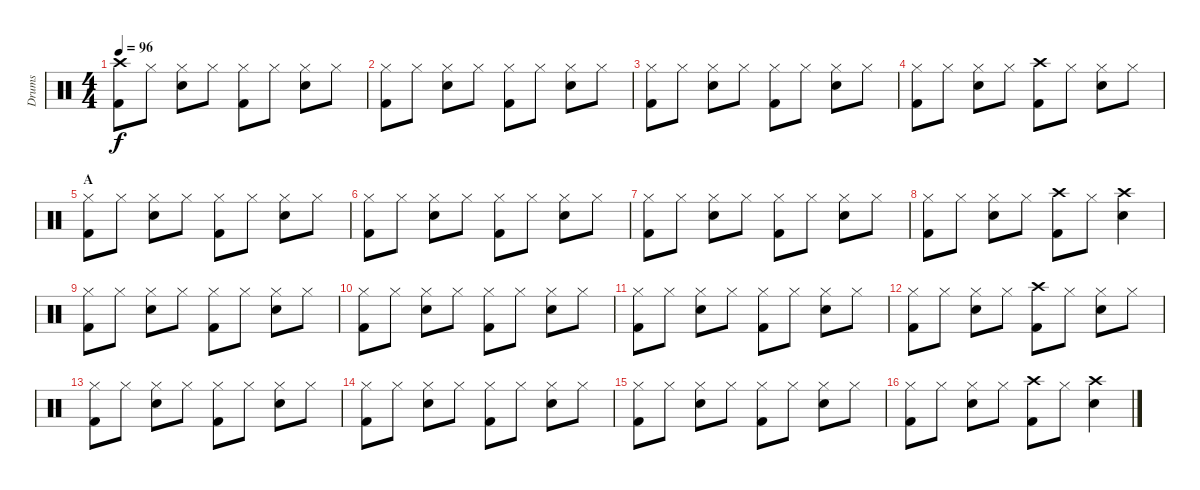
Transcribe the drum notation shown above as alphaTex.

\track ("Drums" "Drums") {instrument percussion}
\staff {score}
\articulation defaults
\ts (4 4)
\tempo 96
\clef neutral
\ks c
("Crash high (hit)" "Kick (hit) 2").8{dy f} "Hi-Hat (closed)".8 ("Hi-Hat (closed)" "Snare (hit) 2").8 "Hi-Hat (closed)".8 ("Hi-Hat (closed)" "Kick (hit) 2").8 "Hi-Hat (closed)".8 ("Hi-Hat (closed)" "Snare (hit) 2").8 "Hi-Hat (closed)".8 |
("Hi-Hat (closed)" "Kick (hit) 2").8 "Hi-Hat (closed)".8 ("Hi-Hat (closed)" "Snare (hit) 2").8 "Hi-Hat (closed)".8 ("Hi-Hat (closed)" "Kick (hit) 2").8 "Hi-Hat (closed)".8 ("Hi-Hat (closed)" "Snare (hit) 2").8 "Hi-Hat (closed)".8 |
("Hi-Hat (closed)" "Kick (hit) 2").8 "Hi-Hat (closed)".8 ("Hi-Hat (closed)" "Snare (hit) 2").8 "Hi-Hat (closed)".8 ("Hi-Hat (closed)" "Kick (hit) 2").8 "Hi-Hat (closed)".8 ("Hi-Hat (closed)" "Snare (hit) 2").8 "Hi-Hat (closed)".8 |
("Hi-Hat (closed)" "Kick (hit) 2").8 "Hi-Hat (closed)".8 ("Hi-Hat (closed)" "Snare (hit) 2").8 "Hi-Hat (closed)".8 ("Crash high (hit)" "Kick (hit) 2").8 "Hi-Hat (closed)".8 ("Hi-Hat (closed)" "Snare (hit) 2").8 "Hi-Hat (closed)".8 |
\section ("" "A")
("Hi-Hat (closed)" "Kick (hit) 2").8 "Hi-Hat (closed)".8 ("Hi-Hat (closed)" "Snare (hit) 2").8 "Hi-Hat (closed)".8 ("Hi-Hat (closed)" "Kick (hit) 2").8 "Hi-Hat (closed)".8 ("Hi-Hat (closed)" "Snare (hit) 2").8 "Hi-Hat (closed)".8 |
("Hi-Hat (closed)" "Kick (hit) 2").8 "Hi-Hat (closed)".8 ("Hi-Hat (closed)" "Snare (hit) 2").8 "Hi-Hat (closed)".8 ("Hi-Hat (closed)" "Kick (hit) 2").8 "Hi-Hat (closed)".8 ("Hi-Hat (closed)" "Snare (hit) 2").8 "Hi-Hat (closed)".8 |
("Hi-Hat (closed)" "Kick (hit) 2").8 "Hi-Hat (closed)".8 ("Hi-Hat (closed)" "Snare (hit) 2").8 "Hi-Hat (closed)".8 ("Hi-Hat (closed)" "Kick (hit) 2").8 "Hi-Hat (closed)".8 ("Hi-Hat (closed)" "Snare (hit) 2").8 "Hi-Hat (closed)".8 |
("Hi-Hat (closed)" "Kick (hit) 2").8 "Hi-Hat (closed)".8 ("Hi-Hat (closed)" "Snare (hit) 2").8 "Hi-Hat (closed)".8 ("Crash high (hit)" "Kick (hit) 2").8 "Hi-Hat (closed)".8 ("Crash high (hit)" "Snare (hit) 2").4 |
("Hi-Hat (closed)" "Kick (hit) 2").8 "Hi-Hat (closed)".8 ("Hi-Hat (closed)" "Snare (hit) 2").8 "Hi-Hat (closed)".8 ("Hi-Hat (closed)" "Kick (hit) 2").8 "Hi-Hat (closed)".8 ("Hi-Hat (closed)" "Snare (hit) 2").8 "Hi-Hat (closed)".8 |
("Hi-Hat (closed)" "Kick (hit) 2").8 "Hi-Hat (closed)".8 ("Hi-Hat (closed)" "Snare (hit) 2").8 "Hi-Hat (closed)".8 ("Hi-Hat (closed)" "Kick (hit) 2").8 "Hi-Hat (closed)".8 ("Hi-Hat (closed)" "Snare (hit) 2").8 "Hi-Hat (closed)".8 |
("Hi-Hat (closed)" "Kick (hit) 2").8 "Hi-Hat (closed)".8 ("Hi-Hat (closed)" "Snare (hit) 2").8 "Hi-Hat (closed)".8 ("Hi-Hat (closed)" "Kick (hit) 2").8 "Hi-Hat (closed)".8 ("Hi-Hat (closed)" "Snare (hit) 2").8 "Hi-Hat (closed)".8 |
("Hi-Hat (closed)" "Kick (hit) 2").8 "Hi-Hat (closed)".8 ("Hi-Hat (closed)" "Snare (hit) 2").8 "Hi-Hat (closed)".8 ("Crash high (hit)" "Kick (hit) 2").8 "Hi-Hat (closed)".8 ("Hi-Hat (closed)" "Snare (hit) 2").8 "Hi-Hat (closed)".8 |
("Hi-Hat (closed)" "Kick (hit) 2").8 "Hi-Hat (closed)".8 ("Hi-Hat (closed)" "Snare (hit) 2").8 "Hi-Hat (closed)".8 ("Hi-Hat (closed)" "Kick (hit) 2").8 "Hi-Hat (closed)".8 ("Hi-Hat (closed)" "Snare (hit) 2").8 "Hi-Hat (closed)".8 |
("Hi-Hat (closed)" "Kick (hit) 2").8 "Hi-Hat (closed)".8 ("Hi-Hat (closed)" "Snare (hit) 2").8 "Hi-Hat (closed)".8 ("Hi-Hat (closed)" "Kick (hit) 2").8 "Hi-Hat (closed)".8 ("Hi-Hat (closed)" "Snare (hit) 2").8 "Hi-Hat (closed)".8 |
("Hi-Hat (closed)" "Kick (hit) 2").8 "Hi-Hat (closed)".8 ("Hi-Hat (closed)" "Snare (hit) 2").8 "Hi-Hat (closed)".8 ("Hi-Hat (closed)" "Kick (hit) 2").8 "Hi-Hat (closed)".8 ("Hi-Hat (closed)" "Snare (hit) 2").8 "Hi-Hat (closed)".8 |
("Hi-Hat (closed)" "Kick (hit) 2").8 "Hi-Hat (closed)".8 ("Hi-Hat (closed)" "Snare (hit) 2").8 "Hi-Hat (closed)".8 ("Crash high (hit)" "Kick (hit) 2").8 "Hi-Hat (closed)".8 ("Crash high (hit)" "Snare (hit) 2").4
